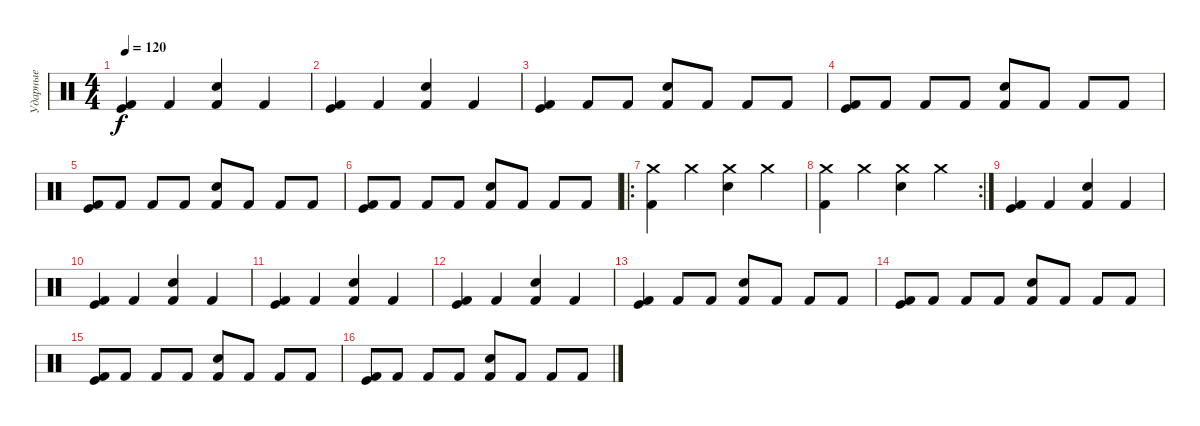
\track ("Ударные" "Ударные") {instrument percussion}
\staff {score}
\articulation defaults
\ts (4 4)
\tempo 120
\clef neutral
\ks c
("Kick (hit) 2" "Kick (hit)").4{dy f} "Kick (hit) 2".4 ("Kick (hit) 2" "Snare (hit) 2").4 "Kick (hit) 2".4 |
("Kick (hit) 2" "Kick (hit)").4 "Kick (hit) 2".4 ("Kick (hit) 2" "Snare (hit) 2").4 "Kick (hit) 2".4 |
("Kick (hit) 2" "Kick (hit)").4 "Kick (hit) 2".8 "Kick (hit) 2".8 ("Kick (hit) 2" "Snare (hit) 2").8 "Kick (hit) 2".8 "Kick (hit) 2".8 "Kick (hit) 2".8 |
("Kick (hit) 2" "Kick (hit)").8 "Kick (hit) 2".8 "Kick (hit) 2".8 "Kick (hit) 2".8 ("Kick (hit) 2" "Snare (hit) 2").8 "Kick (hit) 2".8 "Kick (hit) 2".8 "Kick (hit) 2".8 |
("Kick (hit) 2" "Kick (hit)").8 "Kick (hit) 2".8 "Kick (hit) 2".8 "Kick (hit) 2".8 ("Kick (hit) 2" "Snare (hit) 2").8 "Kick (hit) 2".8 "Kick (hit) 2".8 "Kick (hit) 2".8 |
("Kick (hit) 2" "Kick (hit)").8 "Kick (hit) 2".8 "Kick (hit) 2".8 "Kick (hit) 2".8 ("Kick (hit) 2" "Snare (hit) 2").8 "Kick (hit) 2".8 "Kick (hit) 2".8 "Kick (hit) 2".8 |
\ro
("Kick (hit) 2" "Crash medium (hit)").4 "Crash medium (hit)".4 ("Crash medium (hit)" "Snare (hit) 2").4 "Crash medium (hit)".4 |
\rc 2
("Kick (hit) 2" "Crash medium (hit)").4 "Crash medium (hit)".4 ("Crash medium (hit)" "Snare (hit) 2").4 "Crash medium (hit)".4 |
("Kick (hit) 2" "Kick (hit)").4 "Kick (hit) 2".4 ("Kick (hit) 2" "Snare (hit) 2").4 "Kick (hit) 2".4 |
("Kick (hit) 2" "Kick (hit)").4 "Kick (hit) 2".4 ("Kick (hit) 2" "Snare (hit) 2").4 "Kick (hit) 2".4 |
("Kick (hit) 2" "Kick (hit)").4 "Kick (hit) 2".4 ("Kick (hit) 2" "Snare (hit) 2").4 "Kick (hit) 2".4 |
("Kick (hit) 2" "Kick (hit)").4 "Kick (hit) 2".4 ("Kick (hit) 2" "Snare (hit) 2").4 "Kick (hit) 2".4 |
("Kick (hit) 2" "Kick (hit)").4 "Kick (hit) 2".8 "Kick (hit) 2".8 ("Kick (hit) 2" "Snare (hit) 2").8 "Kick (hit) 2".8 "Kick (hit) 2".8 "Kick (hit) 2".8 |
("Kick (hit) 2" "Kick (hit)").8 "Kick (hit) 2".8 "Kick (hit) 2".8 "Kick (hit) 2".8 ("Kick (hit) 2" "Snare (hit) 2").8 "Kick (hit) 2".8 "Kick (hit) 2".8 "Kick (hit) 2".8 |
("Kick (hit) 2" "Kick (hit)").8 "Kick (hit) 2".8 "Kick (hit) 2".8 "Kick (hit) 2".8 ("Kick (hit) 2" "Snare (hit) 2").8 "Kick (hit) 2".8 "Kick (hit) 2".8 "Kick (hit) 2".8 |
("Kick (hit) 2" "Kick (hit)").8 "Kick (hit) 2".8 "Kick (hit) 2".8 "Kick (hit) 2".8 ("Kick (hit) 2" "Snare (hit) 2").8 "Kick (hit) 2".8 "Kick (hit) 2".8 "Kick (hit) 2".8
